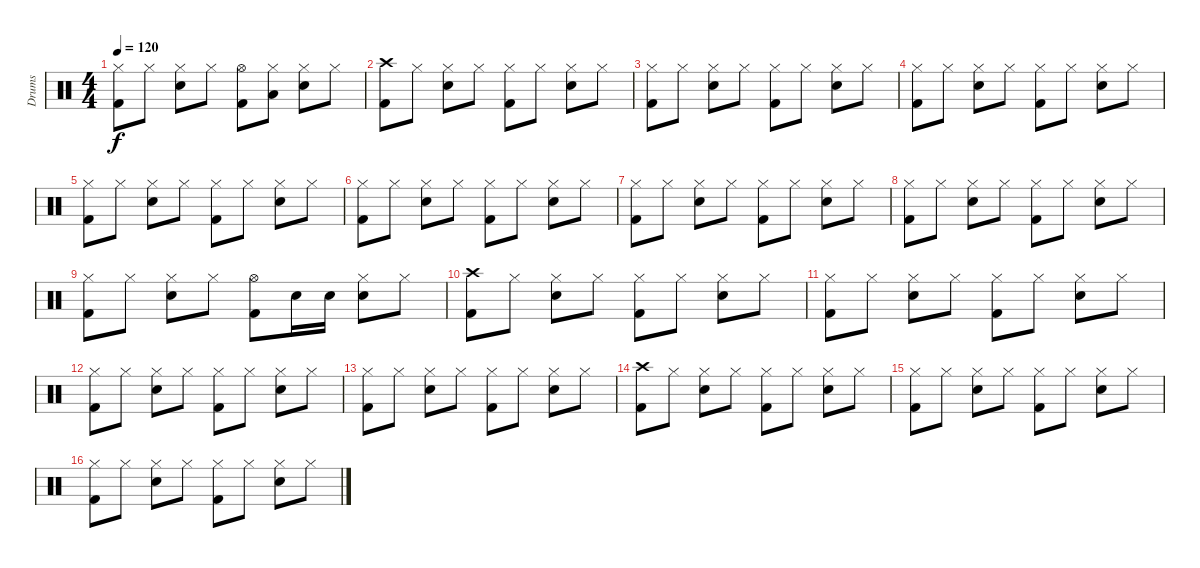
\track ("Drums" "Drums") {instrument percussion}
\staff {score}
\articulation defaults
\ts (4 4)
\tempo 120
\clef neutral
\ks c
("Hi-Hat (closed)" "Kick (hit) 2").8{dy f} "Hi-Hat (closed)".8 ("Hi-Hat (closed)" "Snare (hit) 2").8 "Hi-Hat (closed)".8 ("Hi-Hat (open)" "Kick (hit) 2").8 ("Hi-Hat (closed)" "Low Tom (hit)").8 ("Hi-Hat (closed)" "Snare (hit) 2").8 "Hi-Hat (closed)".8 |
("Crash high (hit)" "Kick (hit) 2").8 "Hi-Hat (closed)".8 ("Hi-Hat (closed)" "Snare (hit) 2").8 "Hi-Hat (closed)".8 ("Hi-Hat (closed)" "Kick (hit) 2").8 "Hi-Hat (closed)".8 ("Hi-Hat (closed)" "Snare (hit) 2").8 "Hi-Hat (closed)".8 |
("Hi-Hat (closed)" "Kick (hit) 2").8 "Hi-Hat (closed)".8 ("Hi-Hat (closed)" "Snare (hit) 2").8 "Hi-Hat (closed)".8 ("Hi-Hat (closed)" "Kick (hit) 2").8 "Hi-Hat (closed)".8 ("Hi-Hat (closed)" "Snare (hit) 2").8 "Hi-Hat (closed)".8 |
("Hi-Hat (closed)" "Kick (hit) 2").8 "Hi-Hat (closed)".8 ("Hi-Hat (closed)" "Snare (hit) 2").8 "Hi-Hat (closed)".8 ("Hi-Hat (closed)" "Kick (hit) 2").8 "Hi-Hat (closed)".8 ("Hi-Hat (closed)" "Snare (hit) 2").8 "Hi-Hat (closed)".8 |
("Hi-Hat (closed)" "Kick (hit) 2").8 "Hi-Hat (closed)".8 ("Hi-Hat (closed)" "Snare (hit) 2").8 "Hi-Hat (closed)".8 ("Hi-Hat (closed)" "Kick (hit) 2").8 "Hi-Hat (closed)".8 ("Hi-Hat (closed)" "Snare (hit) 2").8 "Hi-Hat (closed)".8 |
("Hi-Hat (closed)" "Kick (hit) 2").8 "Hi-Hat (closed)".8 ("Hi-Hat (closed)" "Snare (hit) 2").8 "Hi-Hat (closed)".8 ("Hi-Hat (closed)" "Kick (hit) 2").8 "Hi-Hat (closed)".8 ("Hi-Hat (closed)" "Snare (hit) 2").8 "Hi-Hat (closed)".8 |
("Hi-Hat (closed)" "Kick (hit) 2").8 "Hi-Hat (closed)".8 ("Hi-Hat (closed)" "Snare (hit) 2").8 "Hi-Hat (closed)".8 ("Hi-Hat (closed)" "Kick (hit) 2").8 "Hi-Hat (closed)".8 ("Hi-Hat (closed)" "Snare (hit) 2").8 "Hi-Hat (closed)".8 |
("Hi-Hat (closed)" "Kick (hit) 2").8 "Hi-Hat (closed)".8 ("Hi-Hat (closed)" "Snare (hit) 2").8 "Hi-Hat (closed)".8 ("Hi-Hat (closed)" "Kick (hit) 2").8 "Hi-Hat (closed)".8 ("Hi-Hat (closed)" "Snare (hit) 2").8 "Hi-Hat (closed)".8 |
("Hi-Hat (closed)" "Kick (hit) 2").8 "Hi-Hat (closed)".8 ("Hi-Hat (closed)" "Snare (hit) 2").8 "Hi-Hat (closed)".8 ("Hi-Hat (open)" "Kick (hit) 2").8 "Snare (hit) 2".16 "Snare (hit) 2".16 ("Hi-Hat (closed)" "Snare (hit) 2").8 "Hi-Hat (closed)".8 |
("Crash high (hit)" "Kick (hit) 2").8 "Hi-Hat (closed)".8 ("Hi-Hat (closed)" "Snare (hit) 2").8 "Hi-Hat (closed)".8 ("Hi-Hat (closed)" "Kick (hit) 2").8 "Hi-Hat (closed)".8 ("Hi-Hat (closed)" "Snare (hit) 2").8 "Hi-Hat (closed)".8 |
("Hi-Hat (closed)" "Kick (hit) 2").8 "Hi-Hat (closed)".8 ("Hi-Hat (closed)" "Snare (hit) 2").8 "Hi-Hat (closed)".8 ("Hi-Hat (closed)" "Kick (hit) 2").8 "Hi-Hat (closed)".8 ("Hi-Hat (closed)" "Snare (hit) 2").8 "Hi-Hat (closed)".8 |
("Hi-Hat (closed)" "Kick (hit) 2").8 "Hi-Hat (closed)".8 ("Hi-Hat (closed)" "Snare (hit) 2").8 "Hi-Hat (closed)".8 ("Hi-Hat (closed)" "Kick (hit) 2").8 "Hi-Hat (closed)".8 ("Hi-Hat (closed)" "Snare (hit) 2").8 "Hi-Hat (closed)".8 |
("Hi-Hat (closed)" "Kick (hit) 2").8 "Hi-Hat (closed)".8 ("Hi-Hat (closed)" "Snare (hit) 2").8 "Hi-Hat (closed)".8 ("Hi-Hat (closed)" "Kick (hit) 2").8 "Hi-Hat (closed)".8 ("Hi-Hat (closed)" "Snare (hit) 2").8 "Hi-Hat (closed)".8 |
("Crash high (hit)" "Kick (hit) 2").8 "Hi-Hat (closed)".8 ("Hi-Hat (closed)" "Snare (hit) 2").8 "Hi-Hat (closed)".8 ("Hi-Hat (closed)" "Kick (hit) 2").8 "Hi-Hat (closed)".8 ("Hi-Hat (closed)" "Snare (hit) 2").8 "Hi-Hat (closed)".8 |
("Hi-Hat (closed)" "Kick (hit) 2").8 "Hi-Hat (closed)".8 ("Hi-Hat (closed)" "Snare (hit) 2").8 "Hi-Hat (closed)".8 ("Hi-Hat (closed)" "Kick (hit) 2").8 "Hi-Hat (closed)".8 ("Hi-Hat (closed)" "Snare (hit) 2").8 "Hi-Hat (closed)".8 |
("Hi-Hat (closed)" "Kick (hit) 2").8 "Hi-Hat (closed)".8 ("Hi-Hat (closed)" "Snare (hit) 2").8 "Hi-Hat (closed)".8 ("Hi-Hat (closed)" "Kick (hit) 2").8 "Hi-Hat (closed)".8 ("Hi-Hat (closed)" "Snare (hit) 2").8 "Hi-Hat (closed)".8
